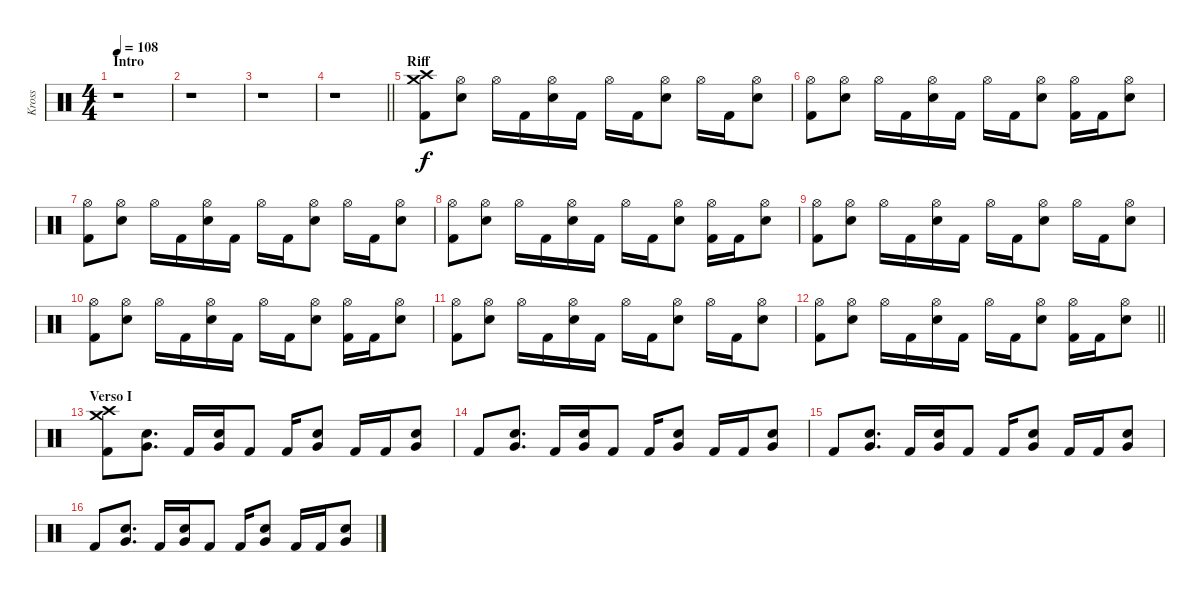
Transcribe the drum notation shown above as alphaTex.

\track ("Kross" "Kross") {instrument percussion}
\staff {score}
\articulation defaults
\ts (4 4)
\section ("" "Intro")
\tempo 108
\clef neutral
\ks c
r.1{dy f} |
r.1 |
r.1 |
\barLineRight lightlight
r.1 |
\section ("" "Riff")
("Crash medium (hit)" "Crash high (hit)" "Kick (hit) 2").8 ("Hi-Hat (open)" "Electric Snare (hit)").8 "Hi-Hat (open)".16 "Kick (hit) 2".16 ("Hi-Hat (open)" "Electric Snare (hit)").16 "Kick (hit) 2".16 "Hi-Hat (open)".16 "Kick (hit) 2".16 ("Hi-Hat (open)" "Electric Snare (hit)").8 "Hi-Hat (open)".16 "Kick (hit) 2".16 ("Hi-Hat (open)" "Electric Snare (hit)").8 |
("Hi-Hat (open)" "Kick (hit) 2").8 ("Hi-Hat (open)" "Electric Snare (hit)").8 "Hi-Hat (open)".16 "Kick (hit) 2".16 ("Hi-Hat (open)" "Electric Snare (hit)").16 "Kick (hit) 2".16 "Hi-Hat (open)".16 "Kick (hit) 2".16 ("Hi-Hat (open)" "Electric Snare (hit)").8 ("Hi-Hat (open)" "Kick (hit) 2").16 "Kick (hit) 2".16 ("Hi-Hat (open)" "Electric Snare (hit)").8 |
("Hi-Hat (open)" "Kick (hit) 2").8 ("Hi-Hat (open)" "Electric Snare (hit)").8 "Hi-Hat (open)".16 "Kick (hit) 2".16 ("Hi-Hat (open)" "Electric Snare (hit)").16 "Kick (hit) 2".16 "Hi-Hat (open)".16 "Kick (hit) 2".16 ("Hi-Hat (open)" "Electric Snare (hit)").8 "Hi-Hat (open)".16 "Kick (hit) 2".16 ("Hi-Hat (open)" "Electric Snare (hit)").8 |
("Hi-Hat (open)" "Kick (hit) 2").8 ("Hi-Hat (open)" "Electric Snare (hit)").8 "Hi-Hat (open)".16 "Kick (hit) 2".16 ("Hi-Hat (open)" "Electric Snare (hit)").16 "Kick (hit) 2".16 "Hi-Hat (open)".16 "Kick (hit) 2".16 ("Hi-Hat (open)" "Electric Snare (hit)").8 ("Hi-Hat (open)" "Kick (hit) 2").16 "Kick (hit) 2".16 ("Hi-Hat (open)" "Electric Snare (hit)").8 |
("Hi-Hat (open)" "Kick (hit) 2").8 ("Hi-Hat (open)" "Electric Snare (hit)").8 "Hi-Hat (open)".16 "Kick (hit) 2".16 ("Hi-Hat (open)" "Electric Snare (hit)").16 "Kick (hit) 2".16 "Hi-Hat (open)".16 "Kick (hit) 2".16 ("Hi-Hat (open)" "Electric Snare (hit)").8 "Hi-Hat (open)".16 "Kick (hit) 2".16 ("Hi-Hat (open)" "Electric Snare (hit)").8 |
("Hi-Hat (open)" "Kick (hit) 2").8 ("Hi-Hat (open)" "Electric Snare (hit)").8 "Hi-Hat (open)".16 "Kick (hit) 2".16 ("Hi-Hat (open)" "Electric Snare (hit)").16 "Kick (hit) 2".16 "Hi-Hat (open)".16 "Kick (hit) 2".16 ("Hi-Hat (open)" "Electric Snare (hit)").8 ("Hi-Hat (open)" "Kick (hit) 2").16 "Kick (hit) 2".16 ("Hi-Hat (open)" "Electric Snare (hit)").8 |
("Hi-Hat (open)" "Kick (hit) 2").8 ("Hi-Hat (open)" "Electric Snare (hit)").8 "Hi-Hat (open)".16 "Kick (hit) 2".16 ("Hi-Hat (open)" "Electric Snare (hit)").16 "Kick (hit) 2".16 "Hi-Hat (open)".16 "Kick (hit) 2".16 ("Hi-Hat (open)" "Electric Snare (hit)").8 "Hi-Hat (open)".16 "Kick (hit) 2".16 ("Hi-Hat (open)" "Electric Snare (hit)").8 |
\barLineRight lightlight
("Hi-Hat (open)" "Kick (hit) 2").8 ("Hi-Hat (open)" "Electric Snare (hit)").8 "Hi-Hat (open)".16 "Kick (hit) 2".16 ("Hi-Hat (open)" "Electric Snare (hit)").16 "Kick (hit) 2".16 "Hi-Hat (open)".16 "Kick (hit) 2".16 ("Hi-Hat (open)" "Electric Snare (hit)").8 ("Hi-Hat (open)" "Kick (hit) 2").16 "Kick (hit) 2".16 ("Hi-Hat (open)" "Electric Snare (hit)").8 |
\section ("" "Verso I")
("Crash medium (hit)" "Crash high (hit)" "Kick (hit) 2").8 ("Very Low Tom (hit)" "Electric Snare (hit)").8{d} "Kick (hit) 2".16 ("Very Low Tom (hit)" "Electric Snare (hit)").16 "Kick (hit) 2".8 "Kick (hit) 2".16 ("Very Low Tom (hit)" "Electric Snare (hit)").8 "Kick (hit) 2".16 "Kick (hit) 2".16 ("Very Low Tom (hit)" "Electric Snare (hit)").8 |
"Kick (hit) 2".8 ("Very Low Tom (hit)" "Electric Snare (hit)").8{d} "Kick (hit) 2".16 ("Very Low Tom (hit)" "Electric Snare (hit)").16 "Kick (hit) 2".8 "Kick (hit) 2".16 ("Very Low Tom (hit)" "Electric Snare (hit)").8 "Kick (hit) 2".16 "Kick (hit) 2".16 ("Very Low Tom (hit)" "Electric Snare (hit)").8 |
"Kick (hit) 2".8 ("Very Low Tom (hit)" "Electric Snare (hit)").8{d} "Kick (hit) 2".16 ("Very Low Tom (hit)" "Electric Snare (hit)").16 "Kick (hit) 2".8 "Kick (hit) 2".16 ("Very Low Tom (hit)" "Electric Snare (hit)").8 "Kick (hit) 2".16 "Kick (hit) 2".16 ("Very Low Tom (hit)" "Electric Snare (hit)").8 |
"Kick (hit) 2".8 ("Very Low Tom (hit)" "Electric Snare (hit)").8{d} "Kick (hit) 2".16 ("Very Low Tom (hit)" "Electric Snare (hit)").16 "Kick (hit) 2".8 "Kick (hit) 2".16 ("Very Low Tom (hit)" "Electric Snare (hit)").8 "Kick (hit) 2".16 "Kick (hit) 2".16 ("Very Low Tom (hit)" "Electric Snare (hit)").8
